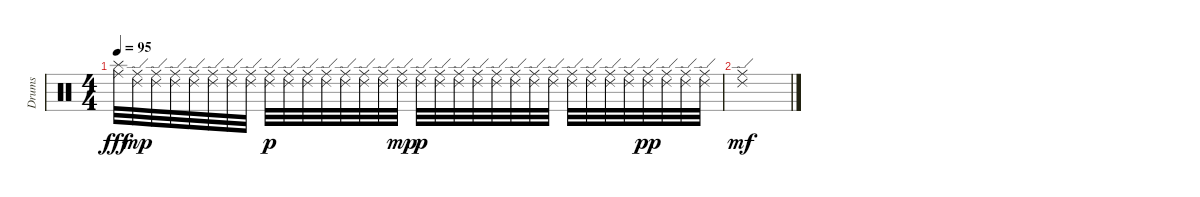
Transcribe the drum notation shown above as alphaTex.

\track ("Drums" "Drums") {instrument percussion}
\staff {score}
\articulation defaults
\ts (4 4)
\tempo 95
\clef neutral
\ks c
("Ride (middle)" "Splash (hit)").32{dy fff} ("Ride (middle)" "Ride (edge) 2").32{dy mp} ("Ride (middle)" "Ride (edge) 2").32 ("Ride (middle)" "Ride (edge) 2").32 ("Ride (middle)" "Ride (edge) 2").32 ("Ride (middle)" "Ride (edge) 2").32 ("Ride (middle)" "Ride (edge) 2").32 ("Ride (middle)" "Ride (edge) 2").32 ("Ride (middle)" "Ride (edge) 2").32{dy p} ("Ride (middle)" "Ride (edge) 2").32 ("Ride (middle)" "Ride (edge) 2").32 ("Ride (middle)" "Ride (edge) 2").32 ("Ride (middle)" "Ride (edge) 2").32 ("Ride (middle)" "Ride (edge) 2").32 ("Ride (middle)" "Ride (edge) 2").32 ("Ride (middle)" "Ride (edge) 2").32{dy mp} ("Ride (middle)" "Ride (edge) 2").32{dy p} ("Ride (middle)" "Ride (edge) 2").32 ("Ride (middle)" "Ride (edge) 2").32 ("Ride (middle)" "Ride (edge) 2").32 ("Ride (middle)" "Ride (edge) 2").32 ("Ride (middle)" "Ride (edge) 2").32 ("Ride (middle)" "Ride (edge) 2").32 ("Ride (middle)" "Ride (edge) 2").32 ("Ride (middle)" "Ride (edge) 2").32 ("Ride (middle)" "Ride (edge) 2").32 ("Ride (middle)" "Ride (edge) 2").32 ("Ride (middle)" "Ride (edge) 2").32 ("Ride (middle)" "Ride (edge) 2").32{dy pp} ("Ride (middle)" "Ride (edge) 2").32 ("Ride (middle)" "Ride (edge) 2").32 ("Ride (middle)" "Ride (edge) 2").32 |
("Ride (middle)" "Ride (edge) 2").1{dy mf}
